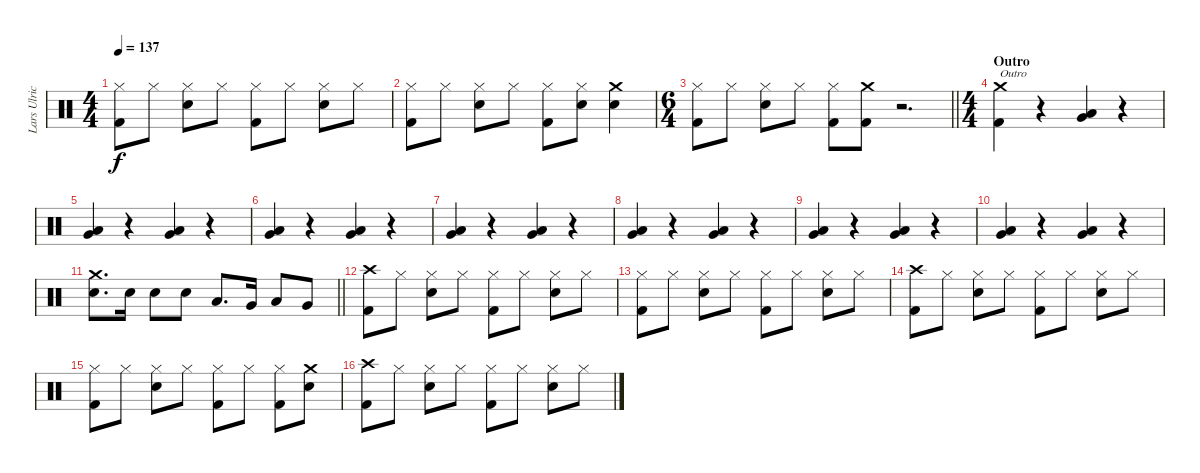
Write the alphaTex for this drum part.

\track ("Lars Ulrich" "Lars Ulric") {instrument percussion}
\staff {score}
\articulation defaults
\ts (4 4)
\tempo 137
\clef neutral
\ks c
("Kick (hit) 2" "Hi-Hat (closed)").8{dy f} "Hi-Hat (closed)".8 ("Snare (hit) 2" "Hi-Hat (closed)").8 "Hi-Hat (closed)".8 ("Kick (hit) 2" "Hi-Hat (closed)").8 "Hi-Hat (closed)".8 ("Snare (hit) 2" "Hi-Hat (closed)").8 "Hi-Hat (closed)".8 |
("Kick (hit) 2" "Hi-Hat (closed)").8 "Hi-Hat (closed)".8 ("Snare (hit) 2" "Hi-Hat (closed)").8 "Hi-Hat (closed)".8 ("Kick (hit) 2" "Hi-Hat (closed)").8 ("Snare (hit) 2" "Hi-Hat (closed)").8 ("Snare (hit) 2" "Crash medium (hit)").4 |
\ts (6 4)
\barLineRight lightlight
("Kick (hit) 2" "Hi-Hat (closed)").8 "Hi-Hat (closed)".8 ("Snare (hit) 2" "Hi-Hat (closed)").8 "Hi-Hat (closed)".8 ("Kick (hit) 2" "Hi-Hat (closed)").8 ("Kick (hit) 2" "Crash medium (hit)").8 r.2{d} |
\ts (4 4)
\section ("" "Outro")
("Kick (hit) 2" "Crash medium (hit)").4{txt "Outro"} r.4 ("Very Low Tom (hit)" "Low Floor Tom (hit)").4 r.4 |
("Very Low Tom (hit)" "Low Floor Tom (hit)").4 r.4 ("Very Low Tom (hit)" "Low Floor Tom (hit)").4 r.4 |
("Very Low Tom (hit)" "Low Floor Tom (hit)").4 r.4 ("Very Low Tom (hit)" "Low Floor Tom (hit)").4 r.4 |
("Very Low Tom (hit)" "Low Floor Tom (hit)").4 r.4 ("Very Low Tom (hit)" "Low Floor Tom (hit)").4 r.4 |
("Very Low Tom (hit)" "Low Floor Tom (hit)").4 r.4 ("Very Low Tom (hit)" "Low Floor Tom (hit)").4 r.4 |
("Very Low Tom (hit)" "Low Floor Tom (hit)").4 r.4 ("Very Low Tom (hit)" "Low Floor Tom (hit)").4 r.4 |
("Very Low Tom (hit)" "Low Floor Tom (hit)").4 r.4 ("Very Low Tom (hit)" "Low Floor Tom (hit)").4 r.4 |
\barLineRight lightlight
("Snare (hit) 2" "Crash medium (hit)").8{d} "Snare (hit) 2".16 "Snare (hit) 2".8 "Snare (hit) 2".8 "Low Tom (hit)".8{d} "Very Low Tom (hit)".16 "Low Floor Tom (hit)".8 "Very Low Tom (hit)".8 |
("Kick (hit) 2" "Crash high (hit)").8 "Hi-Hat (closed)".8 ("Snare (hit) 2" "Hi-Hat (closed)").8 "Hi-Hat (closed)".8 ("Kick (hit) 2" "Hi-Hat (closed)").8 "Hi-Hat (closed)".8 ("Snare (hit) 2" "Hi-Hat (closed)").8 "Hi-Hat (closed)".8 |
("Kick (hit) 2" "Hi-Hat (closed)").8 "Hi-Hat (closed)".8 ("Snare (hit) 2" "Hi-Hat (closed)").8 "Hi-Hat (closed)".8 ("Kick (hit) 2" "Hi-Hat (closed)").8 "Hi-Hat (closed)".8 ("Snare (hit) 2" "Hi-Hat (closed)").8 "Hi-Hat (closed)".8 |
("Kick (hit) 2" "Crash high (hit)").8 "Hi-Hat (closed)".8 ("Snare (hit) 2" "Hi-Hat (closed)").8 "Hi-Hat (closed)".8 ("Kick (hit) 2" "Hi-Hat (closed)").8 "Hi-Hat (closed)".8 ("Snare (hit) 2" "Hi-Hat (closed)").8 "Hi-Hat (closed)".8 |
("Kick (hit) 2" "Hi-Hat (closed)").8 "Hi-Hat (closed)".8 ("Snare (hit) 2" "Hi-Hat (closed)").8 "Hi-Hat (closed)".8 ("Kick (hit) 2" "Hi-Hat (closed)").8 "Hi-Hat (closed)".8 ("Kick (hit) 2" "Hi-Hat (closed)").8 ("Snare (hit) 2" "Crash medium (hit)").8 |
("Kick (hit) 2" "Crash high (hit)").8 "Hi-Hat (closed)".8 ("Snare (hit) 2" "Hi-Hat (closed)").8 "Hi-Hat (closed)".8 ("Kick (hit) 2" "Hi-Hat (closed)").8 "Hi-Hat (closed)".8 ("Snare (hit) 2" "Hi-Hat (closed)").8 "Hi-Hat (closed)".8
